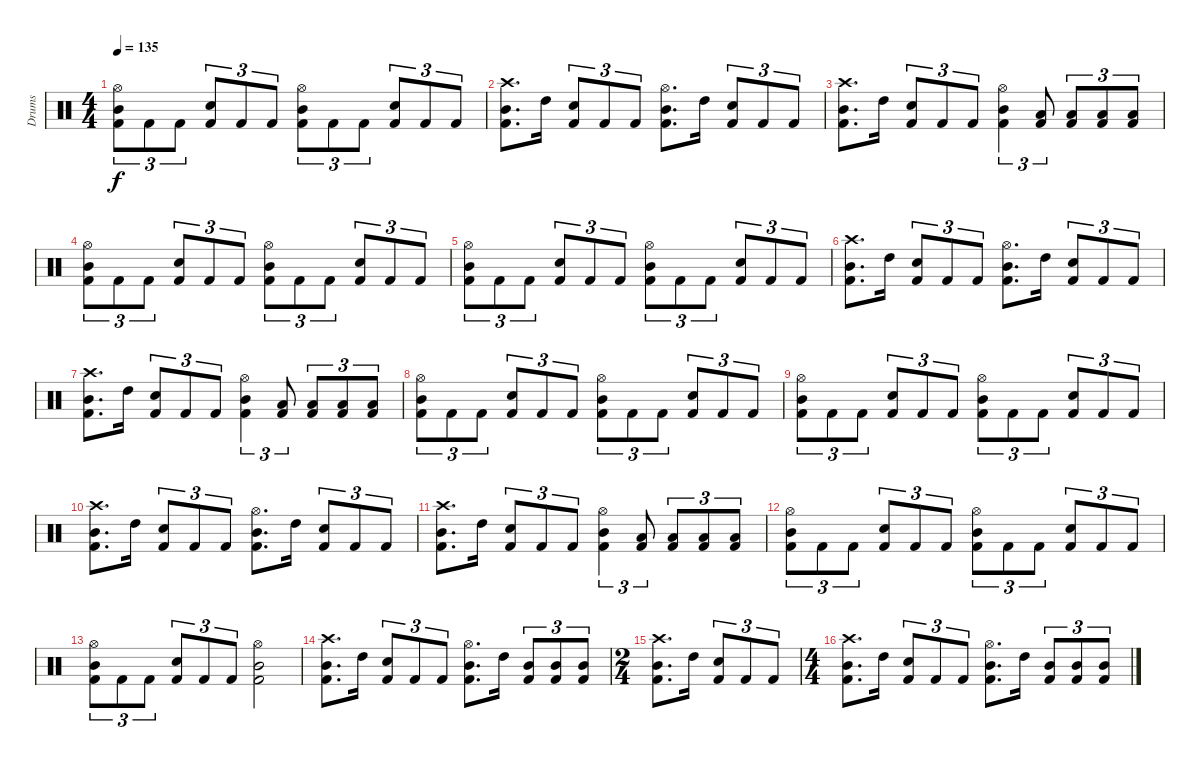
\track ("Drums" "Drums") {instrument percussion}
\staff {score}
\articulation defaults
\ts (4 4)
\tempo 135
\clef neutral
\ks c
("Hi-Hat (open)" "Mid Tom (hit)" "Kick (hit) 2").8{tu (3 2) dy f} "Kick (hit) 2".8{tu (3 2)} "Kick (hit) 2".8{tu (3 2)} ("Snare (hit) 2" "Kick (hit) 2").8{tu (3 2)} "Kick (hit) 2".8{tu (3 2)} "Kick (hit) 2".8{tu (3 2)} ("Hi-Hat (open)" "Mid Tom (hit)" "Kick (hit) 2").8{tu (3 2)} "Kick (hit) 2".8{tu (3 2)} "Kick (hit) 2".8{tu (3 2)} ("Snare (hit) 2" "Kick (hit) 2").8{tu (3 2)} "Kick (hit) 2".8{tu (3 2)} "Kick (hit) 2".8{tu (3 2)} |
("Crash high (hit)" "Mid Tom (hit)" "Kick (hit) 2").8{d} "High Tom (hit)".16 ("Snare (hit) 2" "Kick (hit) 2").8{tu (3 2)} "Kick (hit) 2".8{tu (3 2)} "Kick (hit) 2".8{tu (3 2)} ("Hi-Hat (open)" "Mid Tom (hit)" "Kick (hit) 2").8{d} "High Tom (hit)".16 ("Snare (hit) 2" "Kick (hit) 2").8{tu (3 2)} "Kick (hit) 2".8{tu (3 2)} "Kick (hit) 2".8{tu (3 2)} |
("Crash high (hit)" "Mid Tom (hit)" "Kick (hit) 2").8{d} "High Tom (hit)".16 ("Snare (hit) 2" "Kick (hit) 2").8{tu (3 2)} "Kick (hit) 2".8{tu (3 2)} "Kick (hit) 2".8{tu (3 2)} ("Hi-Hat (open)" "Mid Tom (hit)" "Kick (hit) 2").4{tu (3 2)} ("Low Tom (hit)" "Kick (hit) 2").8{tu (3 2)} ("Low Tom (hit)" "Kick (hit) 2").8{tu (3 2)} ("Low Tom (hit)" "Kick (hit) 2").8{tu (3 2)} ("Low Tom (hit)" "Kick (hit) 2").8{tu (3 2)} |
("Hi-Hat (open)" "Mid Tom (hit)" "Kick (hit) 2").8{tu (3 2)} "Kick (hit) 2".8{tu (3 2)} "Kick (hit) 2".8{tu (3 2)} ("Snare (hit) 2" "Kick (hit) 2").8{tu (3 2)} "Kick (hit) 2".8{tu (3 2)} "Kick (hit) 2".8{tu (3 2)} ("Hi-Hat (open)" "Mid Tom (hit)" "Kick (hit) 2").8{tu (3 2)} "Kick (hit) 2".8{tu (3 2)} "Kick (hit) 2".8{tu (3 2)} ("Snare (hit) 2" "Kick (hit) 2").8{tu (3 2)} "Kick (hit) 2".8{tu (3 2)} "Kick (hit) 2".8{tu (3 2)} |
("Hi-Hat (open)" "Mid Tom (hit)" "Kick (hit) 2").8{tu (3 2)} "Kick (hit) 2".8{tu (3 2)} "Kick (hit) 2".8{tu (3 2)} ("Snare (hit) 2" "Kick (hit) 2").8{tu (3 2)} "Kick (hit) 2".8{tu (3 2)} "Kick (hit) 2".8{tu (3 2)} ("Hi-Hat (open)" "Mid Tom (hit)" "Kick (hit) 2").8{tu (3 2)} "Kick (hit) 2".8{tu (3 2)} "Kick (hit) 2".8{tu (3 2)} ("Snare (hit) 2" "Kick (hit) 2").8{tu (3 2)} "Kick (hit) 2".8{tu (3 2)} "Kick (hit) 2".8{tu (3 2)} |
("Crash high (hit)" "Mid Tom (hit)" "Kick (hit) 2").8{d} "High Tom (hit)".16 ("Snare (hit) 2" "Kick (hit) 2").8{tu (3 2)} "Kick (hit) 2".8{tu (3 2)} "Kick (hit) 2".8{tu (3 2)} ("Hi-Hat (open)" "Mid Tom (hit)" "Kick (hit) 2").8{d} "High Tom (hit)".16 ("Snare (hit) 2" "Kick (hit) 2").8{tu (3 2)} "Kick (hit) 2".8{tu (3 2)} "Kick (hit) 2".8{tu (3 2)} |
("Crash high (hit)" "Mid Tom (hit)" "Kick (hit) 2").8{d} "High Tom (hit)".16 ("Snare (hit) 2" "Kick (hit) 2").8{tu (3 2)} "Kick (hit) 2".8{tu (3 2)} "Kick (hit) 2".8{tu (3 2)} ("Hi-Hat (open)" "Mid Tom (hit)" "Kick (hit) 2").4{tu (3 2)} ("Low Tom (hit)" "Kick (hit) 2").8{tu (3 2)} ("Low Tom (hit)" "Kick (hit) 2").8{tu (3 2)} ("Low Tom (hit)" "Kick (hit) 2").8{tu (3 2)} ("Low Tom (hit)" "Kick (hit) 2").8{tu (3 2)} |
("Hi-Hat (open)" "Mid Tom (hit)" "Kick (hit) 2").8{tu (3 2)} "Kick (hit) 2".8{tu (3 2)} "Kick (hit) 2".8{tu (3 2)} ("Snare (hit) 2" "Kick (hit) 2").8{tu (3 2)} "Kick (hit) 2".8{tu (3 2)} "Kick (hit) 2".8{tu (3 2)} ("Hi-Hat (open)" "Mid Tom (hit)" "Kick (hit) 2").8{tu (3 2)} "Kick (hit) 2".8{tu (3 2)} "Kick (hit) 2".8{tu (3 2)} ("Snare (hit) 2" "Kick (hit) 2").8{tu (3 2)} "Kick (hit) 2".8{tu (3 2)} "Kick (hit) 2".8{tu (3 2)} |
("Hi-Hat (open)" "Mid Tom (hit)" "Kick (hit) 2").8{tu (3 2)} "Kick (hit) 2".8{tu (3 2)} "Kick (hit) 2".8{tu (3 2)} ("Snare (hit) 2" "Kick (hit) 2").8{tu (3 2)} "Kick (hit) 2".8{tu (3 2)} "Kick (hit) 2".8{tu (3 2)} ("Hi-Hat (open)" "Mid Tom (hit)" "Kick (hit) 2").8{tu (3 2)} "Kick (hit) 2".8{tu (3 2)} "Kick (hit) 2".8{tu (3 2)} ("Snare (hit) 2" "Kick (hit) 2").8{tu (3 2)} "Kick (hit) 2".8{tu (3 2)} "Kick (hit) 2".8{tu (3 2)} |
("Crash high (hit)" "Mid Tom (hit)" "Kick (hit) 2").8{d} "High Tom (hit)".16 ("Snare (hit) 2" "Kick (hit) 2").8{tu (3 2)} "Kick (hit) 2".8{tu (3 2)} "Kick (hit) 2".8{tu (3 2)} ("Hi-Hat (open)" "Mid Tom (hit)" "Kick (hit) 2").8{d} "High Tom (hit)".16 ("Snare (hit) 2" "Kick (hit) 2").8{tu (3 2)} "Kick (hit) 2".8{tu (3 2)} "Kick (hit) 2".8{tu (3 2)} |
("Crash high (hit)" "Mid Tom (hit)" "Kick (hit) 2").8{d} "High Tom (hit)".16 ("Snare (hit) 2" "Kick (hit) 2").8{tu (3 2)} "Kick (hit) 2".8{tu (3 2)} "Kick (hit) 2".8{tu (3 2)} ("Hi-Hat (open)" "Mid Tom (hit)" "Kick (hit) 2").4{tu (3 2)} ("Low Tom (hit)" "Kick (hit) 2").8{tu (3 2)} ("Low Tom (hit)" "Kick (hit) 2").8{tu (3 2)} ("Low Tom (hit)" "Kick (hit) 2").8{tu (3 2)} ("Low Tom (hit)" "Kick (hit) 2").8{tu (3 2)} |
("Hi-Hat (open)" "Mid Tom (hit)" "Kick (hit) 2").8{tu (3 2)} "Kick (hit) 2".8{tu (3 2)} "Kick (hit) 2".8{tu (3 2)} ("Snare (hit) 2" "Kick (hit) 2").8{tu (3 2)} "Kick (hit) 2".8{tu (3 2)} "Kick (hit) 2".8{tu (3 2)} ("Hi-Hat (open)" "Mid Tom (hit)" "Kick (hit) 2").8{tu (3 2)} "Kick (hit) 2".8{tu (3 2)} "Kick (hit) 2".8{tu (3 2)} ("Snare (hit) 2" "Kick (hit) 2").8{tu (3 2)} "Kick (hit) 2".8{tu (3 2)} "Kick (hit) 2".8{tu (3 2)} |
("Hi-Hat (open)" "Mid Tom (hit)" "Kick (hit) 2").8{tu (3 2)} "Kick (hit) 2".8{tu (3 2)} "Kick (hit) 2".8{tu (3 2)} ("Snare (hit) 2" "Kick (hit) 2").8{tu (3 2)} "Kick (hit) 2".8{tu (3 2)} "Kick (hit) 2".8{tu (3 2)} ("Hi-Hat (open)" "Mid Tom (hit)" "Kick (hit) 2").2 |
("Crash high (hit)" "Mid Tom (hit)" "Kick (hit) 2").8{d} "High Tom (hit)".16 ("Snare (hit) 2" "Kick (hit) 2").8{tu (3 2)} "Kick (hit) 2".8{tu (3 2)} "Kick (hit) 2".8{tu (3 2)} ("Hi-Hat (open)" "Mid Tom (hit)" "Kick (hit) 2").8{d} "High Tom (hit)".16 ("Mid Tom (hit)" "Kick (hit) 2").8{tu (3 2)} ("Mid Tom (hit)" "Kick (hit) 2").8{tu (3 2)} ("Mid Tom (hit)" "Kick (hit) 2").8{tu (3 2)} |
\ts (2 4)
("Crash high (hit)" "Mid Tom (hit)" "Kick (hit) 2").8{d} "High Tom (hit)".16 ("Snare (hit) 2" "Kick (hit) 2").8{tu (3 2)} "Kick (hit) 2".8{tu (3 2)} "Kick (hit) 2".8{tu (3 2)} |
\ts (4 4)
("Crash high (hit)" "Mid Tom (hit)" "Kick (hit) 2").8{d} "High Tom (hit)".16 ("Snare (hit) 2" "Kick (hit) 2").8{tu (3 2)} "Kick (hit) 2".8{tu (3 2)} "Kick (hit) 2".8{tu (3 2)} ("Hi-Hat (open)" "Mid Tom (hit)" "Kick (hit) 2").8{d} "High Tom (hit)".16 ("Mid Tom (hit)" "Kick (hit) 2").8{tu (3 2)} ("Mid Tom (hit)" "Kick (hit) 2").8{tu (3 2)} ("Mid Tom (hit)" "Kick (hit) 2").8{tu (3 2)}
